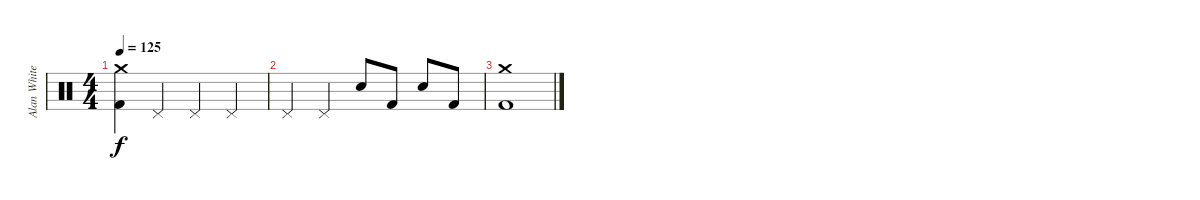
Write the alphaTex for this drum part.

\track ("Alan White" "Alan White") {instrument percussion}
\staff {score}
\articulation defaults
\ts (4 4)
\tempo 125
\clef neutral
\ks c
("Crash medium (hit)" "Kick (hit) 2").4{dy f} "Pedal Hi-Hat (hit)".4 "Pedal Hi-Hat (hit)".4 "Pedal Hi-Hat (hit)".4 |
"Pedal Hi-Hat (hit)".4 "Pedal Hi-Hat (hit)".4 "Snare (hit) 2".8 "Kick (hit) 2".8 "Snare (hit) 2".8 "Kick (hit) 2".8 |
("Crash medium (hit)" "Kick (hit) 2").1
